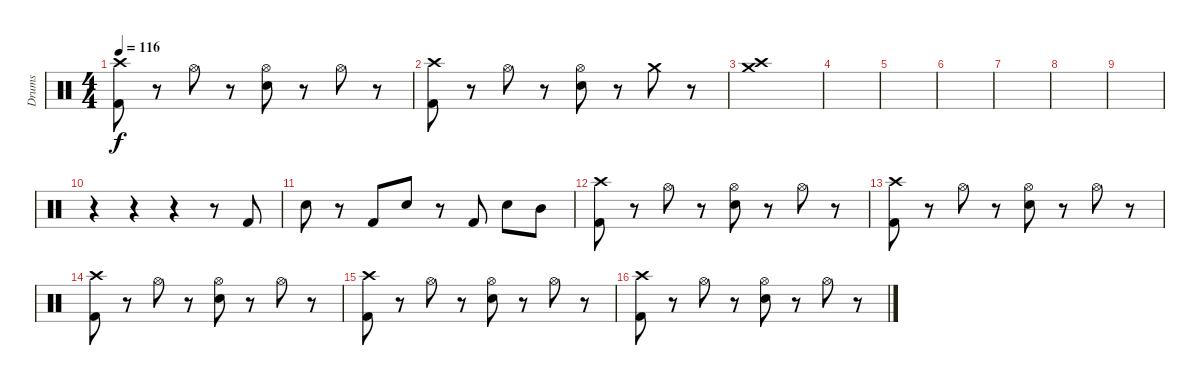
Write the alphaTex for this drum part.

\track ("Drums" "Drums") {instrument percussion}
\staff {score}
\articulation defaults
\ts (4 4)
\tempo 116
\clef neutral
\ks c
("Crash high (hit)" "Kick (hit) 2").8{dy f} r.8 "Hi-Hat (open)".8 r.8 ("Snare (hit) 2" "Hi-Hat (open)").8 r.8 "Hi-Hat (open)".8 r.8 |
("Crash high (hit)" "Kick (hit) 2").8 r.8 "Hi-Hat (open)".8 r.8 ("Snare (hit) 2" "Hi-Hat (open)").8 r.8 "Crash medium (hit)".8 r.8 |
("Crash high (hit)" "Crash medium (hit)").1 |
|
|
|
|
|
|
r.4 r.4 r.4 r.8 "Kick (hit) 2".8 |
"Snare (hit) 2".8 r.8 "Kick (hit) 2".8 "Snare (hit) 2".8 r.8 "Kick (hit) 2".8 "Snare (hit) 2".8 "Mid Tom (hit)".8 |
("Crash high (hit)" "Kick (hit) 2").8 r.8 "Hi-Hat (open)".8 r.8 ("Snare (hit) 2" "Hi-Hat (open)").8 r.8 "Hi-Hat (open)".8 r.8 |
("Crash high (hit)" "Kick (hit) 2").8 r.8 "Hi-Hat (open)".8 r.8 ("Snare (hit) 2" "Hi-Hat (open)").8 r.8 "Hi-Hat (open)".8 r.8 |
("Crash high (hit)" "Kick (hit) 2").8 r.8 "Hi-Hat (open)".8 r.8 ("Snare (hit) 2" "Hi-Hat (open)").8 r.8 "Hi-Hat (open)".8 r.8 |
("Crash high (hit)" "Kick (hit) 2").8 r.8 "Hi-Hat (open)".8 r.8 ("Snare (hit) 2" "Hi-Hat (open)").8 r.8 "Hi-Hat (open)".8 r.8 |
("Crash high (hit)" "Kick (hit) 2").8 r.8 "Hi-Hat (open)".8 r.8 ("Snare (hit) 2" "Hi-Hat (open)").8 r.8 "Hi-Hat (open)".8 r.8
